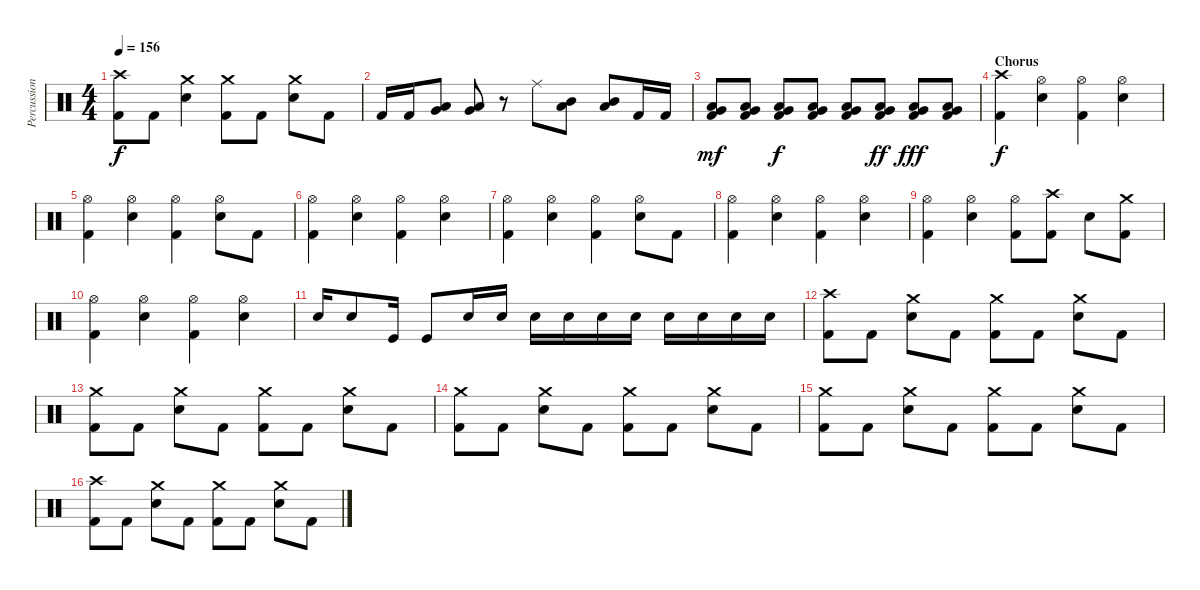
\track ("Percussion" "Percussion") {instrument percussion}
\staff {score}
\articulation defaults
\ts (4 4)
\tempo 156
\clef neutral
\ks c
("Crash high (hit)" "Kick (hit) 2").8{dy f} "Kick (hit) 2".8 ("Crash medium (hit)" "Electric Snare (hit)").4 ("Crash medium (hit)" "Kick (hit) 2").8 "Kick (hit) 2".8 ("Crash medium (hit)" "Electric Snare (hit)").8 "Kick (hit) 2".8 |
"Kick (hit) 2".16 "Kick (hit) 2".16 ("Low Floor Tom (hit)" "Very Low Tom (hit)").8 ("Low Floor Tom (hit)" "Very Low Tom (hit)").8 r.8 "Ride (middle)".8 ("Mid Tom (hit)" "Low Tom (hit)").8 ("Mid Tom (hit)" "Low Tom (hit)").8 "Kick (hit) 2".16 "Kick (hit) 2".16 |
("Low Floor Tom (hit)" "Very Low Tom (hit)" "Kick (hit) 2").8{dy mf} ("Low Floor Tom (hit)" "Very Low Tom (hit)" "Kick (hit) 2").8 ("Low Floor Tom (hit)" "Very Low Tom (hit)" "Kick (hit) 2").8{dy f} ("Low Floor Tom (hit)" "Very Low Tom (hit)" "Kick (hit) 2").8 ("Low Floor Tom (hit)" "Very Low Tom (hit)" "Kick (hit) 2").8 ("Low Floor Tom (hit)" "Very Low Tom (hit)" "Kick (hit) 2").8{dy ff} ("Low Floor Tom (hit)" "Very Low Tom (hit)" "Kick (hit) 2").8{dy fff} ("Low Floor Tom (hit)" "Very Low Tom (hit)" "Kick (hit) 2").8 |
\section ("" "Chorus")
("Crash high (hit)" "Kick (hit) 2").4{dy f} ("Hi-Hat (open)" "Electric Snare (hit)").4 ("Hi-Hat (open)" "Kick (hit) 2").4 ("Hi-Hat (open)" "Electric Snare (hit)").4 |
("Hi-Hat (open)" "Kick (hit) 2").4 ("Hi-Hat (open)" "Electric Snare (hit)").4 ("Hi-Hat (open)" "Kick (hit) 2").4 ("Hi-Hat (open)" "Electric Snare (hit)").8 "Kick (hit) 2".8 |
("Hi-Hat (open)" "Kick (hit) 2").4 ("Hi-Hat (open)" "Electric Snare (hit)").4 ("Hi-Hat (open)" "Kick (hit) 2").4 ("Hi-Hat (open)" "Electric Snare (hit)").4 |
("Hi-Hat (open)" "Kick (hit) 2").4 ("Hi-Hat (open)" "Electric Snare (hit)").4 ("Hi-Hat (open)" "Kick (hit) 2").4 ("Hi-Hat (open)" "Electric Snare (hit)").8 "Kick (hit) 2".8 |
("Hi-Hat (open)" "Kick (hit) 2").4 ("Hi-Hat (open)" "Electric Snare (hit)").4 ("Hi-Hat (open)" "Kick (hit) 2").4 ("Hi-Hat (open)" "Electric Snare (hit)").4 |
("Hi-Hat (open)" "Kick (hit) 2").4 ("Hi-Hat (open)" "Electric Snare (hit)").4 ("Hi-Hat (open)" "Kick (hit) 2").8 ("Crash high (hit)" "Kick (hit) 2").8 "Electric Snare (hit)".8 ("Crash medium (hit)" "Kick (hit) 2").8 |
("Hi-Hat (open)" "Kick (hit) 2").4 ("Hi-Hat (open)" "Electric Snare (hit)").4 ("Hi-Hat (open)" "Kick (hit) 2").4 ("Hi-Hat (open)" "Electric Snare (hit)").4 |
"Electric Snare (hit)".16 "Electric Snare (hit)".8 "Kick (hit)".16 "Kick (hit)".8 "Electric Snare (hit)".16 "Electric Snare (hit)".16 "Electric Snare (hit)".16 "Electric Snare (hit)".16 "Electric Snare (hit)".16 "Electric Snare (hit)".16 "Electric Snare (hit)".16 "Electric Snare (hit)".16 "Electric Snare (hit)".16 "Electric Snare (hit)".16 |
("Crash high (hit)" "Kick (hit) 2").8 "Kick (hit) 2".8 ("Crash medium (hit)" "Electric Snare (hit)").8 "Kick (hit) 2".8 ("Crash medium (hit)" "Kick (hit) 2").8 "Kick (hit) 2".8 ("Crash medium (hit)" "Electric Snare (hit)").8 "Kick (hit) 2".8 |
("Crash medium (hit)" "Kick (hit) 2").8 "Kick (hit) 2".8 ("Crash medium (hit)" "Electric Snare (hit)").8 "Kick (hit) 2".8 ("Crash medium (hit)" "Kick (hit) 2").8 "Kick (hit) 2".8 ("Crash medium (hit)" "Electric Snare (hit)").8 "Kick (hit) 2".8 |
("Crash medium (hit)" "Kick (hit) 2").8 "Kick (hit) 2".8 ("Crash medium (hit)" "Electric Snare (hit)").8 "Kick (hit) 2".8 ("Crash medium (hit)" "Kick (hit) 2").8 "Kick (hit) 2".8 ("Crash medium (hit)" "Electric Snare (hit)").8 "Kick (hit) 2".8 |
("Crash medium (hit)" "Kick (hit) 2").8 "Kick (hit) 2".8 ("Crash medium (hit)" "Electric Snare (hit)").8 "Kick (hit) 2".8 ("Crash medium (hit)" "Kick (hit) 2").8 "Kick (hit) 2".8 ("Crash medium (hit)" "Electric Snare (hit)").8 "Kick (hit) 2".8 |
("Crash high (hit)" "Kick (hit) 2").8 "Kick (hit) 2".8 ("Crash medium (hit)" "Electric Snare (hit)").8 "Kick (hit) 2".8 ("Crash medium (hit)" "Kick (hit) 2").8 "Kick (hit) 2".8 ("Crash medium (hit)" "Electric Snare (hit)").8 "Kick (hit) 2".8
